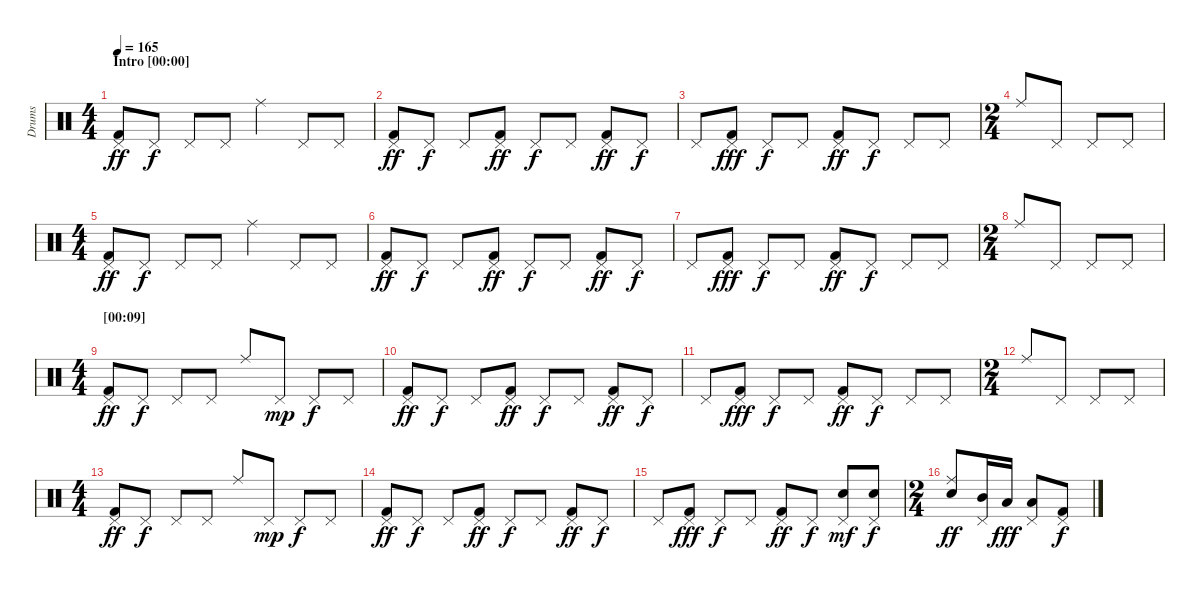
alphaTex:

\track ("Drums" "Drums") {instrument percussion}
\staff {score}
\articulation defaults
\ts (4 4)
\section ("" "Intro [00:00]")
\tempo 165
\clef neutral
\ks c
("Pedal Hi-Hat (hit)" "Kick (hit) 2").8{dy ff} "Pedal Hi-Hat (hit)".8{dy f} "Pedal Hi-Hat (hit)".8 "Pedal Hi-Hat (hit)".8 "Ride (middle)".4 "Pedal Hi-Hat (hit)".8 "Pedal Hi-Hat (hit)".8 |
("Pedal Hi-Hat (hit)" "Kick (hit) 2").8{dy ff} "Pedal Hi-Hat (hit)".8{dy f} "Pedal Hi-Hat (hit)".8 ("Pedal Hi-Hat (hit)" "Kick (hit) 2").8{dy ff} "Pedal Hi-Hat (hit)".8{dy f} "Pedal Hi-Hat (hit)".8 ("Pedal Hi-Hat (hit)" "Kick (hit) 2").8{dy ff} "Pedal Hi-Hat (hit)".8{dy f} |
"Pedal Hi-Hat (hit)".8 ("Pedal Hi-Hat (hit)" "Kick (hit) 2").8{dy fff} "Pedal Hi-Hat (hit)".8{dy f} "Pedal Hi-Hat (hit)".8 ("Pedal Hi-Hat (hit)" "Kick (hit) 2").8{dy ff} "Pedal Hi-Hat (hit)".8{dy f} "Pedal Hi-Hat (hit)".8 "Pedal Hi-Hat (hit)".8 |
\ts (2 4)
"Ride (middle)".8 "Pedal Hi-Hat (hit)".8 "Pedal Hi-Hat (hit)".8 "Pedal Hi-Hat (hit)".8 |
\ts (4 4)
("Pedal Hi-Hat (hit)" "Kick (hit) 2").8{dy ff} "Pedal Hi-Hat (hit)".8{dy f} "Pedal Hi-Hat (hit)".8 "Pedal Hi-Hat (hit)".8 "Ride (middle)".4 "Pedal Hi-Hat (hit)".8 "Pedal Hi-Hat (hit)".8 |
("Pedal Hi-Hat (hit)" "Kick (hit) 2").8{dy ff} "Pedal Hi-Hat (hit)".8{dy f} "Pedal Hi-Hat (hit)".8 ("Pedal Hi-Hat (hit)" "Kick (hit) 2").8{dy ff} "Pedal Hi-Hat (hit)".8{dy f} "Pedal Hi-Hat (hit)".8 ("Pedal Hi-Hat (hit)" "Kick (hit) 2").8{dy ff} "Pedal Hi-Hat (hit)".8{dy f} |
"Pedal Hi-Hat (hit)".8 ("Pedal Hi-Hat (hit)" "Kick (hit) 2").8{dy fff} "Pedal Hi-Hat (hit)".8{dy f} "Pedal Hi-Hat (hit)".8 ("Pedal Hi-Hat (hit)" "Kick (hit) 2").8{dy ff} "Pedal Hi-Hat (hit)".8{dy f} "Pedal Hi-Hat (hit)".8 "Pedal Hi-Hat (hit)".8 |
\ts (2 4)
"Ride (middle)".8 "Pedal Hi-Hat (hit)".8 "Pedal Hi-Hat (hit)".8 "Pedal Hi-Hat (hit)".8 |
\ts (4 4)
\section ("" "[00:09]")
("Pedal Hi-Hat (hit)" "Kick (hit) 2").8{dy ff} "Pedal Hi-Hat (hit)".8{dy f} "Pedal Hi-Hat (hit)".8 "Pedal Hi-Hat (hit)".8 "Ride (middle)".8 "Pedal Hi-Hat (hit)".8{dy mp} "Pedal Hi-Hat (hit)".8{dy f} "Pedal Hi-Hat (hit)".8 |
("Pedal Hi-Hat (hit)" "Kick (hit) 2").8{dy ff} "Pedal Hi-Hat (hit)".8{dy f} "Pedal Hi-Hat (hit)".8 ("Pedal Hi-Hat (hit)" "Kick (hit) 2").8{dy ff} "Pedal Hi-Hat (hit)".8{dy f} "Pedal Hi-Hat (hit)".8 ("Pedal Hi-Hat (hit)" "Kick (hit) 2").8{dy ff} "Pedal Hi-Hat (hit)".8{dy f} |
"Pedal Hi-Hat (hit)".8 ("Pedal Hi-Hat (hit)" "Kick (hit) 2").8{dy fff} "Pedal Hi-Hat (hit)".8{dy f} "Pedal Hi-Hat (hit)".8 ("Pedal Hi-Hat (hit)" "Kick (hit) 2").8{dy ff} "Pedal Hi-Hat (hit)".8{dy f} "Pedal Hi-Hat (hit)".8 "Pedal Hi-Hat (hit)".8 |
\ts (2 4)
"Ride (middle)".8 "Pedal Hi-Hat (hit)".8 "Pedal Hi-Hat (hit)".8 "Pedal Hi-Hat (hit)".8 |
\ts (4 4)
("Pedal Hi-Hat (hit)" "Kick (hit) 2").8{dy ff} "Pedal Hi-Hat (hit)".8{dy f} "Pedal Hi-Hat (hit)".8 "Pedal Hi-Hat (hit)".8 "Ride (middle)".8 "Pedal Hi-Hat (hit)".8{dy mp} "Pedal Hi-Hat (hit)".8{dy f} "Pedal Hi-Hat (hit)".8 |
("Pedal Hi-Hat (hit)" "Kick (hit) 2").8{dy ff} "Pedal Hi-Hat (hit)".8{dy f} "Pedal Hi-Hat (hit)".8 ("Pedal Hi-Hat (hit)" "Kick (hit) 2").8{dy ff} "Pedal Hi-Hat (hit)".8{dy f} "Pedal Hi-Hat (hit)".8 ("Pedal Hi-Hat (hit)" "Kick (hit) 2").8{dy ff} "Pedal Hi-Hat (hit)".8{dy f} |
"Pedal Hi-Hat (hit)".8 ("Pedal Hi-Hat (hit)" "Kick (hit) 2").8{dy fff} "Pedal Hi-Hat (hit)".8{dy f} "Pedal Hi-Hat (hit)".8 ("Pedal Hi-Hat (hit)" "Kick (hit) 2").8{dy ff} "Pedal Hi-Hat (hit)".8{dy f} ("Pedal Hi-Hat (hit)" "Electric Snare (hit)").8{dy mf} ("Pedal Hi-Hat (hit)" "Electric Snare (hit)").8{dy f} |
\ts (2 4)
("Ride (middle)" "Electric Snare (hit)").8{dy ff} ("Pedal Hi-Hat (hit)" "Mid Tom (hit)").16 "Low Tom (hit)".16{dy fff} ("Pedal Hi-Hat (hit)" "Low Tom (hit)").8 ("Pedal Hi-Hat (hit)" "Kick (hit) 2").8{dy f}
